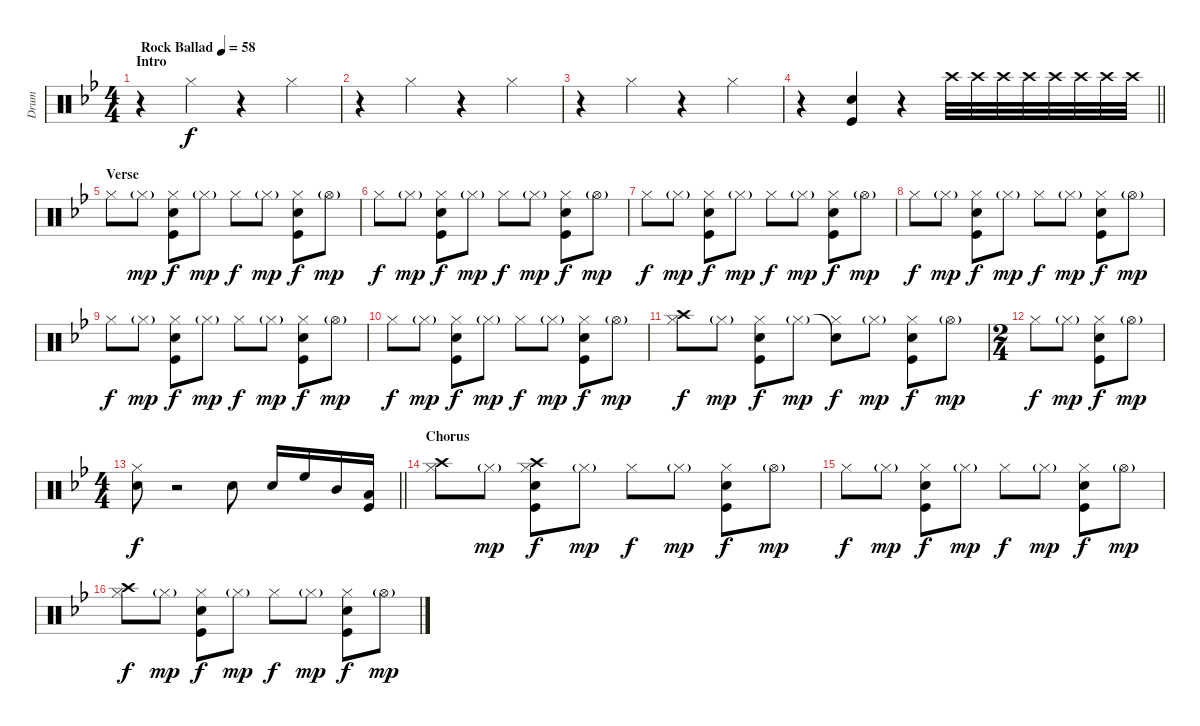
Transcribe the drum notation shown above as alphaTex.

\track ("Drum" "Drum") {instrument percussion}
\staff {score}
\articulation defaults
\ts (4 4)
\section ("" "Intro")
\tempo (58 "Rock Ballad")
\clef neutral
\ks bb
r.4{dy f} "Hi-Hat (closed)".4 r.4 "Hi-Hat (closed)".4 |
r.4 "Hi-Hat (closed)".4 r.4 "Hi-Hat (closed)".4 |
r.4 "Hi-Hat (closed)".4 r.4 "Hi-Hat (closed)".4 |
\barLineRight lightlight
r.4 ("Snare (hit) 2" "Kick (hit)").4 r.4{volume 0} "Crash high (hit)".32{volume 13} "Crash high (hit)".32 "Crash high (hit)".32 "Crash high (hit)".32 "Crash high (hit)".32 "Crash high (hit)".32 "Crash high (hit)".32 "Crash high (hit)".32 |
\section ("" "Verse")
"Hi-Hat (closed)".8 "Hi-Hat (closed)"{g}.8{dy mp} ("Hi-Hat (closed)" "Kick (hit)" "Snare (hit) 2").8{dy f} "Hi-Hat (closed)"{g}.8{dy mp} "Hi-Hat (closed)".8{dy f} "Hi-Hat (closed)"{g}.8{dy mp} ("Hi-Hat (closed)" "Kick (hit)" "Snare (hit) 2").8{dy f} "Hi-Hat (open)"{g}.8{dy mp} |
"Hi-Hat (closed)".8{dy f} "Hi-Hat (closed)"{g}.8{dy mp} ("Hi-Hat (closed)" "Kick (hit)" "Snare (hit) 2").8{dy f} "Hi-Hat (closed)"{g}.8{dy mp} "Hi-Hat (closed)".8{dy f} "Hi-Hat (closed)"{g}.8{dy mp} ("Hi-Hat (closed)" "Kick (hit)" "Snare (hit) 2").8{dy f} "Hi-Hat (open)"{g}.8{dy mp} |
"Hi-Hat (closed)".8{dy f} "Hi-Hat (closed)"{g}.8{dy mp} ("Hi-Hat (closed)" "Kick (hit)" "Snare (hit) 2").8{dy f} "Hi-Hat (closed)"{g}.8{dy mp} "Hi-Hat (closed)".8{dy f} "Hi-Hat (closed)"{g}.8{dy mp} ("Hi-Hat (closed)" "Kick (hit)" "Snare (hit) 2").8{dy f} "Hi-Hat (open)"{g}.8{dy mp} |
"Hi-Hat (closed)".8{dy f} "Hi-Hat (closed)"{g}.8{dy mp} ("Hi-Hat (closed)" "Kick (hit)" "Snare (hit) 2").8{dy f} "Hi-Hat (closed)"{g}.8{dy mp} "Hi-Hat (closed)".8{dy f} "Hi-Hat (closed)"{g}.8{dy mp} ("Hi-Hat (closed)" "Kick (hit)" "Snare (hit) 2").8{dy f} "Hi-Hat (open)"{g}.8{dy mp} |
"Hi-Hat (closed)".8{dy f} "Hi-Hat (closed)"{g}.8{dy mp} ("Hi-Hat (closed)" "Kick (hit)" "Snare (hit) 2").8{dy f} "Hi-Hat (closed)"{g}.8{dy mp} "Hi-Hat (closed)".8{dy f} "Hi-Hat (closed)"{g}.8{dy mp} ("Hi-Hat (closed)" "Kick (hit)" "Snare (hit) 2").8{dy f} "Hi-Hat (open)"{g}.8{dy mp} |
"Hi-Hat (closed)".8{dy f} "Hi-Hat (closed)"{g}.8{dy mp} ("Hi-Hat (closed)" "Kick (hit)" "Snare (hit) 2").8{dy f} "Hi-Hat (closed)"{g}.8{dy mp} "Hi-Hat (closed)".8{dy f} "Hi-Hat (closed)"{g}.8{dy mp} ("Hi-Hat (closed)" "Kick (hit)" "Snare (hit) 2").8{dy f} "Hi-Hat (open)"{g}.8{dy mp} |
("Crash high (hit)" "Hi-Hat (closed)").8{dy f} "Hi-Hat (closed)"{g}.8{dy mp} ("Hi-Hat (closed)" "Kick (hit)" "Snare (hit) 2").8{dy f} "Hi-Hat (closed)"{g}.8{dy mp} ("Snare (hit)"{t} "Hi-Hat (closed)").8{dy f} "Hi-Hat (closed)"{g}.8{dy mp} ("Hi-Hat (closed)" "Kick (hit)" "Snare (hit) 2").8{dy f} "Hi-Hat (open)"{g}.8{dy mp} |
\ts (2 4)
"Hi-Hat (closed)".8{dy f} "Hi-Hat (closed)"{g}.8{dy mp} ("Hi-Hat (closed)" "Kick (hit)" "Snare (hit) 2").8{dy f} "Hi-Hat (open)"{g}.8{dy mp} |
\ts (4 4)
\barLineRight lightlight
("Hi-Hat (closed)" "Snare (hit) 2").8{dy f} r.2 "Snare (hit) 2".8 "Snare (hit) 2".16 "High Floor Tom (hit)".16 "Mid Tom (hit)".16 ("Kick (hit)" "Low Tom (hit)").16 |
\section ("" "Chorus")
("Crash high (hit)" "Hi-Hat (closed)").8 "Hi-Hat (closed)"{g}.8{dy mp} ("Crash high (hit)" "Hi-Hat (closed)" "Kick (hit)" "Snare (hit) 2").8{dy f} "Hi-Hat (closed)"{g}.8{dy mp} "Hi-Hat (closed)".8{dy f} "Hi-Hat (closed)"{g}.8{dy mp} ("Hi-Hat (closed)" "Kick (hit)" "Snare (hit) 2").8{dy f} "Hi-Hat (open)"{g}.8{dy mp} |
"Hi-Hat (closed)".8{dy f} "Hi-Hat (closed)"{g}.8{dy mp} ("Hi-Hat (closed)" "Kick (hit)" "Snare (hit) 2").8{dy f} "Hi-Hat (closed)"{g}.8{dy mp} "Hi-Hat (closed)".8{dy f} "Hi-Hat (closed)"{g}.8{dy mp} ("Hi-Hat (closed)" "Kick (hit)" "Snare (hit) 2").8{dy f} "Hi-Hat (open)"{g}.8{dy mp} |
("Crash high (hit)" "Hi-Hat (closed)").8{dy f} "Hi-Hat (closed)"{g}.8{dy mp} ("Hi-Hat (closed)" "Kick (hit)" "Snare (hit) 2").8{dy f} "Hi-Hat (closed)"{g}.8{dy mp} "Hi-Hat (closed)".8{dy f} "Hi-Hat (closed)"{g}.8{dy mp} ("Hi-Hat (closed)" "Kick (hit)" "Snare (hit) 2").8{dy f} "Hi-Hat (open)"{g}.8{dy mp}
